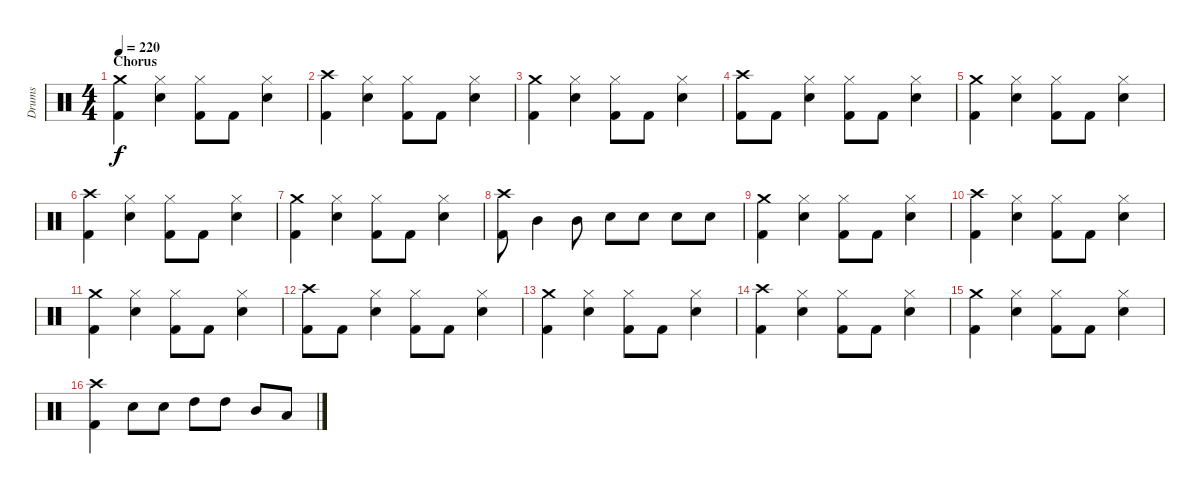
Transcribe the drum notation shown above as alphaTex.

\track ("Drums" "Drums") {instrument percussion}
\staff {score}
\articulation defaults
\ts (4 4)
\section ("" "Chorus")
\tempo 220
\clef neutral
\ks c
("Crash medium (hit)" "Kick (hit) 2").4{dy f} ("Hi-Hat (closed)" "Electric Snare (hit)").4 ("Hi-Hat (closed)" "Kick (hit) 2").8 "Kick (hit) 2".8 ("Hi-Hat (closed)" "Electric Snare (hit)").4 |
("Crash high (hit)" "Kick (hit) 2").4 ("Hi-Hat (closed)" "Electric Snare (hit)").4 ("Hi-Hat (closed)" "Kick (hit) 2").8 "Kick (hit) 2".8 ("Hi-Hat (closed)" "Electric Snare (hit)").4 |
("Crash medium (hit)" "Kick (hit) 2").4 ("Hi-Hat (closed)" "Electric Snare (hit)").4 ("Hi-Hat (closed)" "Kick (hit) 2").8 "Kick (hit) 2".8 ("Hi-Hat (closed)" "Electric Snare (hit)").4 |
("Crash high (hit)" "Kick (hit) 2").8 "Kick (hit) 2".8 ("Hi-Hat (closed)" "Electric Snare (hit)").4 ("Hi-Hat (closed)" "Kick (hit) 2").8 "Kick (hit) 2".8 ("Hi-Hat (closed)" "Electric Snare (hit)").4 |
("Crash medium (hit)" "Kick (hit) 2").4 ("Hi-Hat (closed)" "Electric Snare (hit)").4 ("Hi-Hat (closed)" "Kick (hit) 2").8 "Kick (hit) 2".8 ("Hi-Hat (closed)" "Electric Snare (hit)").4 |
("Crash high (hit)" "Kick (hit) 2").4 ("Hi-Hat (closed)" "Electric Snare (hit)").4 ("Hi-Hat (closed)" "Kick (hit) 2").8 "Kick (hit) 2".8 ("Hi-Hat (closed)" "Electric Snare (hit)").4 |
("Crash medium (hit)" "Kick (hit) 2").4 ("Hi-Hat (closed)" "Electric Snare (hit)").4 ("Hi-Hat (closed)" "Kick (hit) 2").8 "Kick (hit) 2".8 ("Hi-Hat (closed)" "Electric Snare (hit)").4 |
("Crash high (hit)" "Kick (hit) 2").8 "Mid Tom (hit)".4 "Mid Tom (hit)".8 "Electric Snare (hit)".8 "Electric Snare (hit)".8 "Electric Snare (hit)".8 "Electric Snare (hit)".8 |
("Crash medium (hit)" "Kick (hit) 2").4 ("Hi-Hat (closed)" "Electric Snare (hit)").4 ("Hi-Hat (closed)" "Kick (hit) 2").8 "Kick (hit) 2".8 ("Hi-Hat (closed)" "Electric Snare (hit)").4 |
("Crash high (hit)" "Kick (hit) 2").4 ("Hi-Hat (closed)" "Electric Snare (hit)").4 ("Hi-Hat (closed)" "Kick (hit) 2").8 "Kick (hit) 2".8 ("Hi-Hat (closed)" "Electric Snare (hit)").4 |
("Crash medium (hit)" "Kick (hit) 2").4 ("Hi-Hat (closed)" "Electric Snare (hit)").4 ("Hi-Hat (closed)" "Kick (hit) 2").8 "Kick (hit) 2".8 ("Hi-Hat (closed)" "Electric Snare (hit)").4 |
("Crash high (hit)" "Kick (hit) 2").8 "Kick (hit) 2".8 ("Hi-Hat (closed)" "Electric Snare (hit)").4 ("Hi-Hat (closed)" "Kick (hit) 2").8 "Kick (hit) 2".8 ("Hi-Hat (closed)" "Electric Snare (hit)").4 |
("Crash medium (hit)" "Kick (hit) 2").4 ("Hi-Hat (closed)" "Electric Snare (hit)").4 ("Hi-Hat (closed)" "Kick (hit) 2").8 "Kick (hit) 2".8 ("Hi-Hat (closed)" "Electric Snare (hit)").4 |
("Crash high (hit)" "Kick (hit) 2").4 ("Hi-Hat (closed)" "Electric Snare (hit)").4 ("Hi-Hat (closed)" "Kick (hit) 2").8 "Kick (hit) 2".8 ("Hi-Hat (closed)" "Electric Snare (hit)").4 |
("Crash medium (hit)" "Kick (hit) 2").4 ("Hi-Hat (closed)" "Electric Snare (hit)").4 ("Hi-Hat (closed)" "Kick (hit) 2").8 "Kick (hit) 2".8 ("Hi-Hat (closed)" "Electric Snare (hit)").4 |
("Crash high (hit)" "Kick (hit) 2").4 "Electric Snare (hit)".8 "Electric Snare (hit)".8 "High Tom (hit)".8 "High Tom (hit)".8 "Mid Tom (hit)".8 "Low Tom (hit)".8
